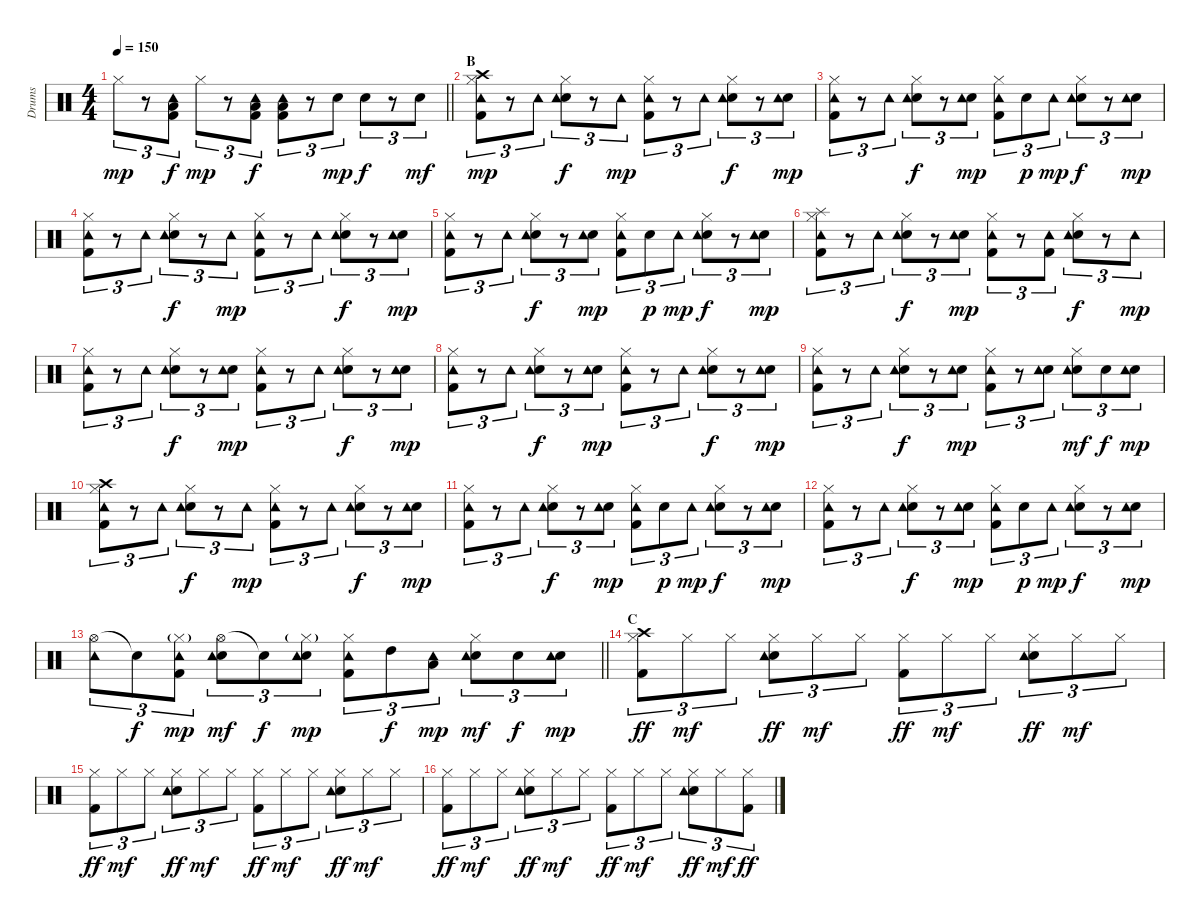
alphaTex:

\track ("Drums" "Drums") {instrument percussion}
\staff {score}
\articulation defaults
\ts (4 4)
\tempo 150
\clef neutral
\barLineRight lightlight
\ks c "Hi-Hat (closed)".8{tu (3 2) dy mp}
r.8{tu (3 2)} ("Low Tom (hit)" "Kick (hit) 2" "Tambourine (hit)").8{tu (3 2) dy f} "Hi-Hat (closed)".8{tu (3 2) dy mp} r.8{tu (3 2)} ("Low Tom (hit)" "Kick (hit) 2" "Tambourine (hit)").8{tu (3 2) dy f} ("Low Tom (hit)" "Kick (hit) 2" "Tambourine (hit)").8{tu (3 2)} r.8{tu (3 2)} "Electric Snare (hit)".8{tu (3 2) dy mp} "Electric Snare (hit)".8{tu (3 2) dy f} r.8{tu (3 2)} "Electric Snare (hit)".8{tu (3 2) dy mf} |
\section ("" "B")
("Crash high (hit)" "Hi-Hat (closed)" "Kick (hit) 2" "Tambourine (hit)").8{tu (3 2) dy mp} r.8{tu (3 2)} "Tambourine (hit)".8{tu (3 2)} ("Hi-Hat (closed)" "Electric Snare (hit)" "Tambourine (hit)").8{tu (3 2) dy f} r.8{tu (3 2)} "Tambourine (hit)".8{tu (3 2) dy mp} ("Hi-Hat (closed)" "Kick (hit) 2" "Tambourine (hit)").8{tu (3 2)} r.8{tu (3 2)} "Tambourine (hit)".8{tu (3 2)} ("Hi-Hat (closed)" "Electric Snare (hit)" "Tambourine (hit)").8{tu (3 2) dy f} r.8{tu (3 2)} ("Electric Snare (hit)" "Tambourine (hit)").8{tu (3 2) dy mp} |
("Hi-Hat (closed)" "Kick (hit) 2" "Tambourine (hit)").8{tu (3 2)} r.8{tu (3 2)} "Tambourine (hit)".8{tu (3 2)} ("Hi-Hat (closed)" "Electric Snare (hit)" "Tambourine (hit)").8{tu (3 2) dy f} r.8{tu (3 2)} ("Electric Snare (hit)" "Tambourine (hit)").8{tu (3 2) dy mp} ("Hi-Hat (closed)" "Kick (hit) 2" "Tambourine (hit)").8{tu (3 2)} "Electric Snare (hit)".8{tu (3 2) dy p} "Tambourine (hit)".8{tu (3 2) dy mp} ("Hi-Hat (closed)" "Electric Snare (hit)" "Tambourine (hit)").8{tu (3 2) dy f} r.8{tu (3 2)} ("Electric Snare (hit)" "Tambourine (hit)").8{tu (3 2) dy mp} |
("Hi-Hat (closed)" "Kick (hit) 2" "Tambourine (hit)").8{tu (3 2)} r.8{tu (3 2)} "Tambourine (hit)".8{tu (3 2)} ("Hi-Hat (closed)" "Electric Snare (hit)" "Tambourine (hit)").8{tu (3 2) dy f} r.8{tu (3 2)} "Tambourine (hit)".8{tu (3 2) dy mp} ("Hi-Hat (closed)" "Kick (hit) 2" "Tambourine (hit)").8{tu (3 2)} r.8{tu (3 2)} "Tambourine (hit)".8{tu (3 2)} ("Hi-Hat (closed)" "Electric Snare (hit)" "Tambourine (hit)").8{tu (3 2) dy f} r.8{tu (3 2)} ("Electric Snare (hit)" "Tambourine (hit)").8{tu (3 2) dy mp} |
("Hi-Hat (closed)" "Kick (hit) 2" "Tambourine (hit)").8{tu (3 2)} r.8{tu (3 2)} "Tambourine (hit)".8{tu (3 2)} ("Hi-Hat (closed)" "Electric Snare (hit)" "Tambourine (hit)").8{tu (3 2) dy f} r.8{tu (3 2)} ("Electric Snare (hit)" "Tambourine (hit)").8{tu (3 2) dy mp} ("Hi-Hat (closed)" "Kick (hit) 2" "Tambourine (hit)").8{tu (3 2)} "Electric Snare (hit)".8{tu (3 2) dy p} "Tambourine (hit)".8{tu (3 2) dy mp} ("Hi-Hat (closed)" "Electric Snare (hit)" "Tambourine (hit)").8{tu (3 2) dy f} r.8{tu (3 2)} ("Electric Snare (hit)" "Tambourine (hit)").8{tu (3 2) dy mp} |
("Splash (hit)" "Hi-Hat (closed)" "Kick (hit) 2" "Tambourine (hit)").8{tu (3 2)} r.8{tu (3 2)} "Tambourine (hit)".8{tu (3 2)} ("Hi-Hat (closed)" "Electric Snare (hit)" "Tambourine (hit)").8{tu (3 2) dy f} r.8{tu (3 2)} ("Electric Snare (hit)" "Tambourine (hit)").8{tu (3 2) dy mp} ("Hi-Hat (closed)" "Kick (hit) 2" "Tambourine (hit)").8{tu (3 2)} r.8{tu (3 2)} ("Kick (hit) 2" "Tambourine (hit)").8{tu (3 2)} ("Hi-Hat (closed)" "Electric Snare (hit)" "Tambourine (hit)").8{tu (3 2) dy f} r.8{tu (3 2)} "Tambourine (hit)".8{tu (3 2) dy mp} |
("Hi-Hat (closed)" "Kick (hit) 2" "Tambourine (hit)").8{tu (3 2)} r.8{tu (3 2)} "Tambourine (hit)".8{tu (3 2)} ("Hi-Hat (closed)" "Electric Snare (hit)" "Tambourine (hit)").8{tu (3 2) dy f} r.8{tu (3 2)} ("Electric Snare (hit)" "Tambourine (hit)").8{tu (3 2) dy mp} ("Hi-Hat (closed)" "Kick (hit) 2" "Tambourine (hit)").8{tu (3 2)} r.8{tu (3 2)} "Tambourine (hit)".8{tu (3 2)} ("Hi-Hat (closed)" "Electric Snare (hit)" "Tambourine (hit)").8{tu (3 2) dy f} r.8{tu (3 2)} ("Electric Snare (hit)" "Tambourine (hit)").8{tu (3 2) dy mp} |
("Hi-Hat (closed)" "Kick (hit) 2" "Tambourine (hit)").8{tu (3 2)} r.8{tu (3 2)} "Tambourine (hit)".8{tu (3 2)} ("Hi-Hat (closed)" "Electric Snare (hit)" "Tambourine (hit)").8{tu (3 2) dy f} r.8{tu (3 2)} ("Electric Snare (hit)" "Tambourine (hit)").8{tu (3 2) dy mp} ("Hi-Hat (closed)" "Kick (hit) 2" "Tambourine (hit)").8{tu (3 2)} r.8{tu (3 2)} "Tambourine (hit)".8{tu (3 2)} ("Hi-Hat (closed)" "Electric Snare (hit)" "Tambourine (hit)").8{tu (3 2) dy f} r.8{tu (3 2)} ("Electric Snare (hit)" "Tambourine (hit)").8{tu (3 2) dy mp} |
("Hi-Hat (closed)" "Kick (hit) 2" "Tambourine (hit)").8{tu (3 2)} r.8{tu (3 2)} "Tambourine (hit)".8{tu (3 2)} ("Hi-Hat (closed)" "Electric Snare (hit)" "Tambourine (hit)").8{tu (3 2) dy f} r.8{tu (3 2)} ("Electric Snare (hit)" "Tambourine (hit)").8{tu (3 2) dy mp} ("Hi-Hat (closed)" "Kick (hit) 2" "Tambourine (hit)").8{tu (3 2)} r.8{tu (3 2)} ("Electric Snare (hit)" "Tambourine (hit)").8{tu (3 2)} ("Hi-Hat (closed)" "Electric Snare (hit)" "Tambourine (hit)").8{tu (3 2) dy mf} "Electric Snare (hit)".8{tu (3 2) dy f} ("Electric Snare (hit)" "Tambourine (hit)").8{tu (3 2) dy mp} |
("Crash high (hit)" "Hi-Hat (closed)" "Kick (hit) 2" "Tambourine (hit)").8{tu (3 2)} r.8{tu (3 2)} "Tambourine (hit)".8{tu (3 2)} ("Hi-Hat (closed)" "Electric Snare (hit)" "Tambourine (hit)").8{tu (3 2) dy f} r.8{tu (3 2)} "Tambourine (hit)".8{tu (3 2) dy mp} ("Hi-Hat (closed)" "Kick (hit) 2" "Tambourine (hit)").8{tu (3 2)} r.8{tu (3 2)} "Tambourine (hit)".8{tu (3 2)} ("Hi-Hat (closed)" "Electric Snare (hit)" "Tambourine (hit)").8{tu (3 2) dy f} r.8{tu (3 2)} ("Electric Snare (hit)" "Tambourine (hit)").8{tu (3 2) dy mp} |
("Hi-Hat (closed)" "Kick (hit) 2" "Tambourine (hit)").8{tu (3 2)} r.8{tu (3 2)} "Tambourine (hit)".8{tu (3 2)} ("Hi-Hat (closed)" "Electric Snare (hit)" "Tambourine (hit)").8{tu (3 2) dy f} r.8{tu (3 2)} ("Electric Snare (hit)" "Tambourine (hit)").8{tu (3 2) dy mp} ("Hi-Hat (closed)" "Kick (hit) 2" "Tambourine (hit)").8{tu (3 2)} "Electric Snare (hit)".8{tu (3 2) dy p} "Tambourine (hit)".8{tu (3 2) dy mp} ("Hi-Hat (closed)" "Electric Snare (hit)" "Tambourine (hit)").8{tu (3 2) dy f} r.8{tu (3 2)} ("Electric Snare (hit)" "Tambourine (hit)").8{tu (3 2) dy mp} |
("Hi-Hat (closed)" "Kick (hit) 2" "Tambourine (hit)").8{tu (3 2)} r.8{tu (3 2)} "Tambourine (hit)".8{tu (3 2)} ("Hi-Hat (closed)" "Electric Snare (hit)" "Tambourine (hit)").8{tu (3 2) dy f} r.8{tu (3 2)} ("Electric Snare (hit)" "Tambourine (hit)").8{tu (3 2) dy mp} ("Hi-Hat (closed)" "Kick (hit) 2" "Tambourine (hit)").8{tu (3 2)} "Electric Snare (hit)".8{tu (3 2) dy p} "Tambourine (hit)".8{tu (3 2) dy mp} ("Hi-Hat (closed)" "Electric Snare (hit)" "Tambourine (hit)").8{tu (3 2) dy f} r.8{tu (3 2)} ("Electric Snare (hit)" "Tambourine (hit)").8{tu (3 2) dy mp} |
\barLineRight lightlight
("Hi-Hat (open)" "Tambourine (hit)").8{tu (3 2)} "Snare (hit)"{t}.8{tu (3 2) dy f} ("Hi-Hat (closed)"{g} "Kick (hit) 2" "Tambourine (hit)").8{tu (3 2) dy mp} ("Hi-Hat (open)" "Electric Snare (hit)" "Tambourine (hit)").8{tu (3 2) dy mf} "Snare (hit)"{t}.8{tu (3 2) dy f} ("Hi-Hat (closed)"{g} "Electric Snare (hit)" "Tambourine (hit)").8{tu (3 2) dy mp} ("Hi-Hat (closed)" "Kick (hit) 2" "Tambourine (hit)").8{tu (3 2)} "High Tom (hit)".8{tu (3 2) dy f} ("Low Tom (hit)" "Tambourine (hit)").8{tu (3 2) dy mp} ("Hi-Hat (closed)" "Electric Snare (hit)" "Tambourine (hit)").8{tu (3 2) dy mf} "Electric Snare (hit)".8{tu (3 2) dy f} ("Electric Snare (hit)" "Tambourine (hit)").8{tu (3 2) dy mp} |
\section ("" "C")
("Crash high (hit)" "Hi-Hat (closed)" "Kick (hit) 2").8{tu (3 2) dy ff} "Hi-Hat (closed)".8{tu (3 2) dy mf} "Hi-Hat (closed)".8{tu (3 2)} ("Hi-Hat (closed)" "Electric Snare (hit)" "Tambourine (hit)").8{tu (3 2) dy ff} "Hi-Hat (closed)".8{tu (3 2) dy mf} "Hi-Hat (closed)".8{tu (3 2)} ("Hi-Hat (closed)" "Kick (hit) 2").8{tu (3 2) dy ff} "Hi-Hat (closed)".8{tu (3 2) dy mf} "Hi-Hat (closed)".8{tu (3 2)} ("Hi-Hat (closed)" "Electric Snare (hit)" "Tambourine (hit)").8{tu (3 2) dy ff} "Hi-Hat (closed)".8{tu (3 2) dy mf} "Hi-Hat (closed)".8{tu (3 2)} |
("Hi-Hat (closed)" "Kick (hit) 2").8{tu (3 2) dy ff} "Hi-Hat (closed)".8{tu (3 2) dy mf} "Hi-Hat (closed)".8{tu (3 2)} ("Hi-Hat (closed)" "Electric Snare (hit)" "Tambourine (hit)").8{tu (3 2) dy ff} "Hi-Hat (closed)".8{tu (3 2) dy mf} "Hi-Hat (closed)".8{tu (3 2)} ("Hi-Hat (closed)" "Kick (hit) 2").8{tu (3 2) dy ff} "Hi-Hat (closed)".8{tu (3 2) dy mf} "Hi-Hat (closed)".8{tu (3 2)} ("Hi-Hat (closed)" "Electric Snare (hit)" "Tambourine (hit)").8{tu (3 2) dy ff} "Hi-Hat (closed)".8{tu (3 2) dy mf} "Hi-Hat (closed)".8{tu (3 2)} |
("Hi-Hat (closed)" "Kick (hit) 2").8{tu (3 2) dy ff} "Hi-Hat (closed)".8{tu (3 2) dy mf} "Hi-Hat (closed)".8{tu (3 2)} ("Hi-Hat (closed)" "Electric Snare (hit)" "Tambourine (hit)").8{tu (3 2) dy ff} "Hi-Hat (closed)".8{tu (3 2) dy mf} "Hi-Hat (closed)".8{tu (3 2)} ("Hi-Hat (closed)" "Kick (hit) 2").8{tu (3 2) dy ff} "Hi-Hat (closed)".8{tu (3 2) dy mf} "Hi-Hat (closed)".8{tu (3 2)} ("Hi-Hat (closed)" "Electric Snare (hit)" "Tambourine (hit)").8{tu (3 2) dy ff} "Hi-Hat (closed)".8{tu (3 2) dy mf} ("Hi-Hat (closed)" "Kick (hit) 2").8{tu (3 2) dy ff}
